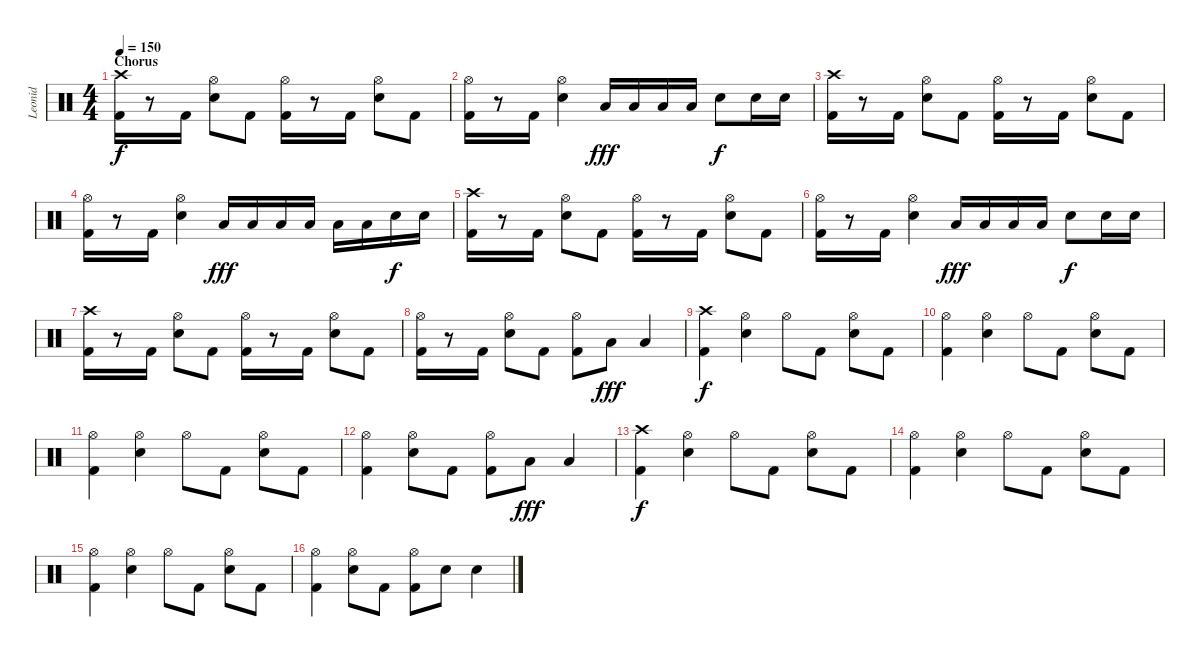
\track ("Leonid" "Leonid") {instrument percussion}
\staff {score}
\articulation defaults
\ts (4 4)
\section ("" "Chorus")
\tempo 150
\clef neutral
\ks c
("Crash high (hit)" "Kick (hit) 2").16{dy f} r.8 "Kick (hit) 2".16 ("Hi-Hat (open)" "Electric Snare (hit)").8 "Kick (hit) 2".8 ("Hi-Hat (open)" "Kick (hit) 2").16 r.8 "Kick (hit) 2".16 ("Hi-Hat (open)" "Electric Snare (hit)").8 "Kick (hit) 2".8 |
("Hi-Hat (open)" "Kick (hit) 2").16 r.8 "Kick (hit) 2".16 ("Hi-Hat (open)" "Electric Snare (hit)").4 "Low Tom (hit)".16{dy fff} "Low Tom (hit)".16 "Low Tom (hit)".16 "Low Tom (hit)".16 "Electric Snare (hit)".8{dy f} "Electric Snare (hit)".16 "Electric Snare (hit)".16 |
("Crash high (hit)" "Kick (hit) 2").16 r.8 "Kick (hit) 2".16 ("Hi-Hat (open)" "Electric Snare (hit)").8 "Kick (hit) 2".8 ("Hi-Hat (open)" "Kick (hit) 2").16 r.8 "Kick (hit) 2".16 ("Hi-Hat (open)" "Electric Snare (hit)").8 "Kick (hit) 2".8 |
("Hi-Hat (open)" "Kick (hit) 2").16 r.8 "Kick (hit) 2".16 ("Hi-Hat (open)" "Electric Snare (hit)").4 "Low Tom (hit)".16{dy fff} "Low Tom (hit)".16 "Low Tom (hit)".16 "Low Floor Tom (hit)".16 "Low Floor Tom (hit)".16 "Low Floor Tom (hit)".16 "Electric Snare (hit)".16{dy f} "Electric Snare (hit)".16 |
("Crash high (hit)" "Kick (hit) 2").16 r.8 "Kick (hit) 2".16 ("Hi-Hat (open)" "Electric Snare (hit)").8 "Kick (hit) 2".8 ("Hi-Hat (open)" "Kick (hit) 2").16 r.8 "Kick (hit) 2".16 ("Hi-Hat (open)" "Electric Snare (hit)").8 "Kick (hit) 2".8 |
("Hi-Hat (open)" "Kick (hit) 2").16 r.8 "Kick (hit) 2".16 ("Hi-Hat (open)" "Electric Snare (hit)").4 "Low Tom (hit)".16{dy fff} "Low Tom (hit)".16 "Low Tom (hit)".16 "Low Tom (hit)".16 "Electric Snare (hit)".8{dy f} "Electric Snare (hit)".16 "Electric Snare (hit)".16 |
("Crash high (hit)" "Kick (hit) 2").16 r.8 "Kick (hit) 2".16 ("Hi-Hat (open)" "Electric Snare (hit)").8 "Kick (hit) 2".8 ("Hi-Hat (open)" "Kick (hit) 2").16 r.8 "Kick (hit) 2".16 ("Hi-Hat (open)" "Electric Snare (hit)").8 "Kick (hit) 2".8 |
("Hi-Hat (open)" "Kick (hit) 2").16 r.8 "Kick (hit) 2".16 ("Hi-Hat (open)" "Electric Snare (hit)").8 "Kick (hit) 2".8 ("Hi-Hat (open)" "Kick (hit) 2").8 "Low Tom (hit)".8{dy fff} "Low Tom (hit)".4 |
("Crash high (hit)" "Kick (hit) 2").4{dy f} ("Hi-Hat (open)" "Electric Snare (hit)").4 "Hi-Hat (open)".8 "Kick (hit) 2".8 ("Hi-Hat (open)" "Electric Snare (hit)").8 "Kick (hit) 2".8 |
("Hi-Hat (open)" "Kick (hit) 2").4 ("Hi-Hat (open)" "Electric Snare (hit)").4 "Hi-Hat (open)".8 "Kick (hit) 2".8 ("Hi-Hat (open)" "Electric Snare (hit)").8 "Kick (hit) 2".8 |
("Hi-Hat (open)" "Kick (hit) 2").4 ("Hi-Hat (open)" "Electric Snare (hit)").4 "Hi-Hat (open)".8 "Kick (hit) 2".8 ("Hi-Hat (open)" "Electric Snare (hit)").8 "Kick (hit) 2".8 |
("Hi-Hat (open)" "Kick (hit) 2").4 ("Hi-Hat (open)" "Electric Snare (hit)").8 "Kick (hit) 2".8 ("Hi-Hat (open)" "Kick (hit) 2").8 "Low Tom (hit)".8{dy fff} "Low Tom (hit)".4 |
("Crash high (hit)" "Kick (hit) 2").4{dy f} ("Hi-Hat (open)" "Electric Snare (hit)").4 "Hi-Hat (open)".8 "Kick (hit) 2".8 ("Hi-Hat (open)" "Electric Snare (hit)").8 "Kick (hit) 2".8 |
("Hi-Hat (open)" "Kick (hit) 2").4 ("Hi-Hat (open)" "Electric Snare (hit)").4 "Hi-Hat (open)".8 "Kick (hit) 2".8 ("Hi-Hat (open)" "Electric Snare (hit)").8 "Kick (hit) 2".8 |
("Hi-Hat (open)" "Kick (hit) 2").4 ("Hi-Hat (open)" "Electric Snare (hit)").4 "Hi-Hat (open)".8 "Kick (hit) 2".8 ("Hi-Hat (open)" "Electric Snare (hit)").8 "Kick (hit) 2".8 |
("Hi-Hat (open)" "Kick (hit) 2").4 ("Hi-Hat (open)" "Electric Snare (hit)").8 "Kick (hit) 2".8 ("Hi-Hat (open)" "Kick (hit) 2").8 "Electric Snare (hit)".8 "Electric Snare (hit)".4
